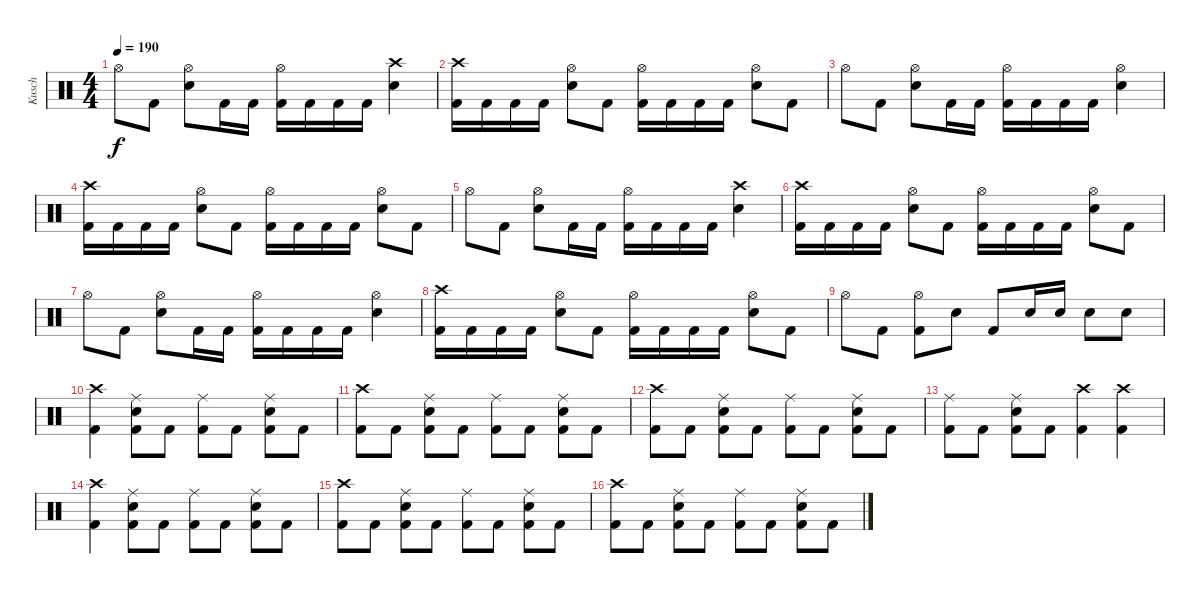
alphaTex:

\track ("Kusch" "Kusch") {instrument percussion}
\staff {score}
\articulation defaults
\ts (4 4)
\tempo 190
\clef neutral
\ks c "Hi-Hat (open)".8{dy f} "Kick (hit) 2".8
("Hi-Hat (open)" "Electric Snare (hit)").8 "Kick (hit) 2".16 "Kick (hit) 2".16 ("Hi-Hat (open)" "Kick (hit) 2").16 "Kick (hit) 2".16 "Kick (hit) 2".16 "Kick (hit) 2".16 ("Crash high (hit)" "Electric Snare (hit)").4 |
("Crash high (hit)" "Kick (hit) 2").16 "Kick (hit) 2".16 "Kick (hit) 2".16 "Kick (hit) 2".16 ("Hi-Hat (open)" "Electric Snare (hit)").8 "Kick (hit) 2".8 ("Hi-Hat (open)" "Kick (hit) 2").16 "Kick (hit) 2".16 "Kick (hit) 2".16 "Kick (hit) 2".16 ("Hi-Hat (open)" "Electric Snare (hit)").8 "Kick (hit) 2".8 |
"Hi-Hat (open)".8 "Kick (hit) 2".8 ("Hi-Hat (open)" "Electric Snare (hit)").8 "Kick (hit) 2".16 "Kick (hit) 2".16 ("Hi-Hat (open)" "Kick (hit) 2").16 "Kick (hit) 2".16 "Kick (hit) 2".16 "Kick (hit) 2".16 ("Hi-Hat (open)" "Electric Snare (hit)").4 |
("Crash high (hit)" "Kick (hit) 2").16 "Kick (hit) 2".16 "Kick (hit) 2".16 "Kick (hit) 2".16 ("Hi-Hat (open)" "Electric Snare (hit)").8 "Kick (hit) 2".8 ("Hi-Hat (open)" "Kick (hit) 2").16 "Kick (hit) 2".16 "Kick (hit) 2".16 "Kick (hit) 2".16 ("Hi-Hat (open)" "Electric Snare (hit)").8 "Kick (hit) 2".8 |
"Hi-Hat (open)".8 "Kick (hit) 2".8 ("Hi-Hat (open)" "Electric Snare (hit)").8 "Kick (hit) 2".16 "Kick (hit) 2".16 ("Hi-Hat (open)" "Kick (hit) 2").16 "Kick (hit) 2".16 "Kick (hit) 2".16 "Kick (hit) 2".16 ("Crash high (hit)" "Electric Snare (hit)").4 |
("Crash high (hit)" "Kick (hit) 2").16 "Kick (hit) 2".16 "Kick (hit) 2".16 "Kick (hit) 2".16 ("Hi-Hat (open)" "Electric Snare (hit)").8 "Kick (hit) 2".8 ("Hi-Hat (open)" "Kick (hit) 2").16 "Kick (hit) 2".16 "Kick (hit) 2".16 "Kick (hit) 2".16 ("Hi-Hat (open)" "Electric Snare (hit)").8 "Kick (hit) 2".8 |
"Hi-Hat (open)".8 "Kick (hit) 2".8 ("Hi-Hat (open)" "Electric Snare (hit)").8 "Kick (hit) 2".16 "Kick (hit) 2".16 ("Hi-Hat (open)" "Kick (hit) 2").16 "Kick (hit) 2".16 "Kick (hit) 2".16 "Kick (hit) 2".16 ("Hi-Hat (open)" "Electric Snare (hit)").4 |
("Crash high (hit)" "Kick (hit) 2").16 "Kick (hit) 2".16 "Kick (hit) 2".16 "Kick (hit) 2".16 ("Hi-Hat (open)" "Electric Snare (hit)").8 "Kick (hit) 2".8 ("Hi-Hat (open)" "Kick (hit) 2").16 "Kick (hit) 2".16 "Kick (hit) 2".16 "Kick (hit) 2".16 ("Hi-Hat (open)" "Electric Snare (hit)").8 "Kick (hit) 2".8 |
"Hi-Hat (open)".8 "Kick (hit) 2".8 ("Hi-Hat (open)" "Kick (hit) 2").8 "Electric Snare (hit)".8 "Kick (hit) 2".8 "Electric Snare (hit)".16 "Electric Snare (hit)".16 "Electric Snare (hit)".8 "Electric Snare (hit)".8 |
("Crash high (hit)" "Kick (hit) 2").4 ("Ride (middle)" "Electric Snare (hit)" "Kick (hit) 2").8 "Kick (hit) 2".8 ("Ride (middle)" "Kick (hit) 2").8 "Kick (hit) 2".8 ("Ride (middle)" "Electric Snare (hit)" "Kick (hit) 2").8 "Kick (hit) 2".8 |
("Crash high (hit)" "Kick (hit) 2").8 "Kick (hit) 2".8 ("Ride (middle)" "Electric Snare (hit)" "Kick (hit) 2").8 "Kick (hit) 2".8 ("Ride (middle)" "Kick (hit) 2").8 "Kick (hit) 2".8 ("Ride (middle)" "Electric Snare (hit)" "Kick (hit) 2").8 "Kick (hit) 2".8 |
("Crash high (hit)" "Kick (hit) 2").8 "Kick (hit) 2".8 ("Ride (middle)" "Electric Snare (hit)" "Kick (hit) 2").8 "Kick (hit) 2".8 ("Ride (middle)" "Kick (hit) 2").8 "Kick (hit) 2".8 ("Ride (middle)" "Electric Snare (hit)" "Kick (hit) 2").8 "Kick (hit) 2".8 |
("Ride (middle)" "Kick (hit) 2").8 "Kick (hit) 2".8 ("Ride (middle)" "Electric Snare (hit)" "Kick (hit) 2").8 "Kick (hit) 2".8 ("Crash high (hit)" "Kick (hit) 2").4 ("Crash high (hit)" "Kick (hit) 2").4 |
("Crash high (hit)" "Kick (hit) 2").4 ("Ride (middle)" "Electric Snare (hit)" "Kick (hit) 2").8 "Kick (hit) 2".8 ("Ride (middle)" "Kick (hit) 2").8 "Kick (hit) 2".8 ("Ride (middle)" "Electric Snare (hit)" "Kick (hit) 2").8 "Kick (hit) 2".8 |
("Crash high (hit)" "Kick (hit) 2").8 "Kick (hit) 2".8 ("Ride (middle)" "Electric Snare (hit)" "Kick (hit) 2").8 "Kick (hit) 2".8 ("Ride (middle)" "Kick (hit) 2").8 "Kick (hit) 2".8 ("Ride (middle)" "Electric Snare (hit)" "Kick (hit) 2").8 "Kick (hit) 2".8 |
("Crash high (hit)" "Kick (hit) 2").8 "Kick (hit) 2".8 ("Ride (middle)" "Electric Snare (hit)" "Kick (hit) 2").8 "Kick (hit) 2".8 ("Ride (middle)" "Kick (hit) 2").8 "Kick (hit) 2".8 ("Ride (middle)" "Electric Snare (hit)" "Kick (hit) 2").8 "Kick (hit) 2".8
